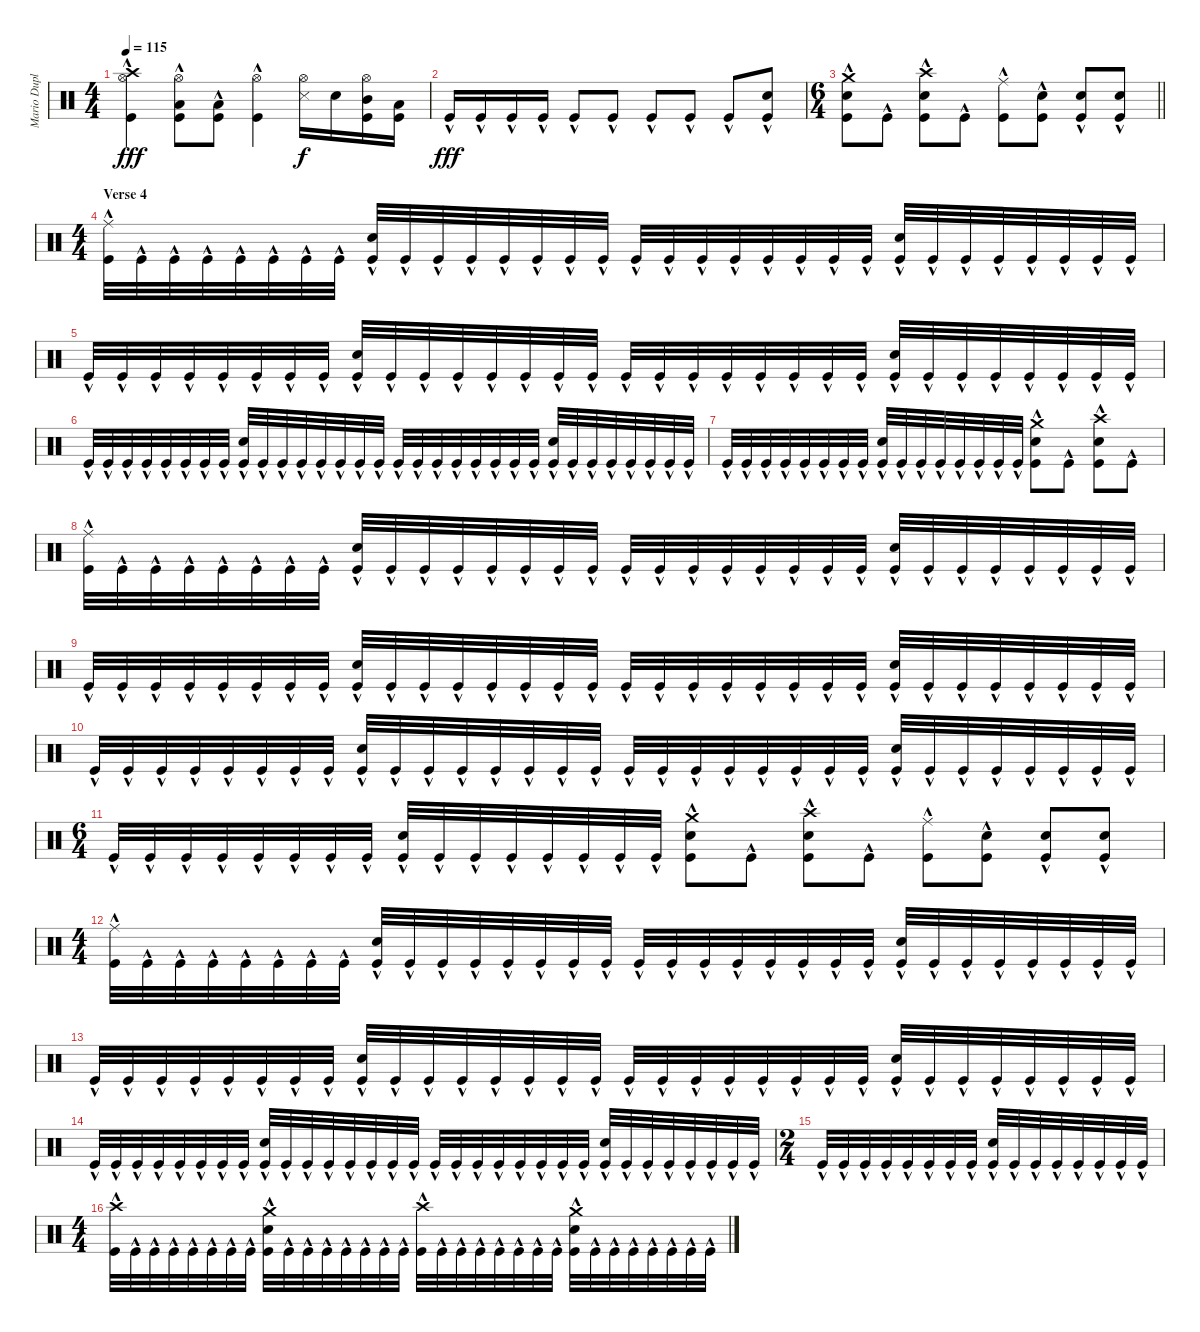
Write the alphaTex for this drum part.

\track ("Mario Duplantier" "Mario Dupl") {instrument percussion}
\staff {score}
\articulation defaults
\ts (4 4)
\tempo 115
\clef neutral
\ks c
("Crash high (hit)" "Hi-Hat (open)"{hac} "Kick (hit)"{hac}).4{dy fff} ("Hi-Hat (open)"{hac} "Low Tom (hit)" "Kick (hit)"{hac}).8 ("Low Tom (hit)" "Kick (hit)"{hac}).8 ("Hi-Hat (open)"{hac} "Kick (hit)"{hac}).4 ("Hi-Hat (open)" "Metronome (hit)").16{dy f} "Electric Snare (hit)".16 ("Hi-Hat (open)" "Mid Tom (hit)" "Kick (hit)").16 ("Low Tom (hit)" "Kick (hit)").16 |
"Kick (hit)"{hac}.16{dy fff} "Kick (hit)"{hac}.16 "Kick (hit)"{hac}.16 "Kick (hit)"{hac}.16 "Kick (hit)"{hac}.8 "Kick (hit)"{hac}.8 "Kick (hit)"{hac}.8 "Kick (hit)"{hac}.8 "Kick (hit)"{hac}.8 ("Electric Snare (hit)" "Kick (hit)"{hac}).8 |
\ts (6 4)
\barLineRight lightlight
("Crash medium (hit)" "Electric Snare (hit)" "Kick (hit)"{hac}).8 "Kick (hit)"{hac}.8 ("Crash high (hit)" "Electric Snare (hit)" "Kick (hit)"{hac}).8 "Kick (hit)"{hac}.8 ("Ride (middle)" "Kick (hit)"{hac}).8 ("Electric Snare (hit)" "Kick (hit)"{hac}).8 ("Electric Snare (hit)" "Kick (hit)"{hac}).8 ("Electric Snare (hit)" "Kick (hit)"{hac}).8 |
\ts (4 4)
\section ("" "Verse 4")
("Ride (middle)" "Kick (hit)"{hac}).32 "Kick (hit)"{hac}.32 "Kick (hit)"{hac}.32 "Kick (hit)"{hac}.32 "Kick (hit)"{hac}.32 "Kick (hit)"{hac}.32 "Kick (hit)"{hac}.32 "Kick (hit)"{hac}.32 ("Electric Snare (hit)" "Kick (hit)"{hac}).32 "Kick (hit)"{hac}.32 "Kick (hit)"{hac}.32 "Kick (hit)"{hac}.32 "Kick (hit)"{hac}.32 "Kick (hit)"{hac}.32 "Kick (hit)"{hac}.32 "Kick (hit)"{hac}.32 "Kick (hit)"{hac}.32 "Kick (hit)"{hac}.32 "Kick (hit)"{hac}.32 "Kick (hit)"{hac}.32 "Kick (hit)"{hac}.32 "Kick (hit)"{hac}.32 "Kick (hit)"{hac}.32 "Kick (hit)"{hac}.32 ("Electric Snare (hit)" "Kick (hit)"{hac}).32 "Kick (hit)"{hac}.32 "Kick (hit)"{hac}.32 "Kick (hit)"{hac}.32 "Kick (hit)"{hac}.32 "Kick (hit)"{hac}.32 "Kick (hit)"{hac}.32 "Kick (hit)"{hac}.32 |
"Kick (hit)"{hac}.32 "Kick (hit)"{hac}.32 "Kick (hit)"{hac}.32 "Kick (hit)"{hac}.32 "Kick (hit)"{hac}.32 "Kick (hit)"{hac}.32 "Kick (hit)"{hac}.32 "Kick (hit)"{hac}.32 ("Electric Snare (hit)" "Kick (hit)"{hac}).32 "Kick (hit)"{hac}.32 "Kick (hit)"{hac}.32 "Kick (hit)"{hac}.32 "Kick (hit)"{hac}.32 "Kick (hit)"{hac}.32 "Kick (hit)"{hac}.32 "Kick (hit)"{hac}.32 "Kick (hit)"{hac}.32 "Kick (hit)"{hac}.32 "Kick (hit)"{hac}.32 "Kick (hit)"{hac}.32 "Kick (hit)"{hac}.32 "Kick (hit)"{hac}.32 "Kick (hit)"{hac}.32 "Kick (hit)"{hac}.32 ("Electric Snare (hit)" "Kick (hit)"{hac}).32 "Kick (hit)"{hac}.32 "Kick (hit)"{hac}.32 "Kick (hit)"{hac}.32 "Kick (hit)"{hac}.32 "Kick (hit)"{hac}.32 "Kick (hit)"{hac}.32 "Kick (hit)"{hac}.32 |
"Kick (hit)"{hac}.32 "Kick (hit)"{hac}.32 "Kick (hit)"{hac}.32 "Kick (hit)"{hac}.32 "Kick (hit)"{hac}.32 "Kick (hit)"{hac}.32 "Kick (hit)"{hac}.32 "Kick (hit)"{hac}.32 ("Electric Snare (hit)" "Kick (hit)"{hac}).32 "Kick (hit)"{hac}.32 "Kick (hit)"{hac}.32 "Kick (hit)"{hac}.32 "Kick (hit)"{hac}.32 "Kick (hit)"{hac}.32 "Kick (hit)"{hac}.32 "Kick (hit)"{hac}.32 "Kick (hit)"{hac}.32 "Kick (hit)"{hac}.32 "Kick (hit)"{hac}.32 "Kick (hit)"{hac}.32 "Kick (hit)"{hac}.32 "Kick (hit)"{hac}.32 "Kick (hit)"{hac}.32 "Kick (hit)"{hac}.32 ("Electric Snare (hit)" "Kick (hit)"{hac}).32 "Kick (hit)"{hac}.32 "Kick (hit)"{hac}.32 "Kick (hit)"{hac}.32 "Kick (hit)"{hac}.32 "Kick (hit)"{hac}.32 "Kick (hit)"{hac}.32 "Kick (hit)"{hac}.32 |
"Kick (hit)"{hac}.32 "Kick (hit)"{hac}.32 "Kick (hit)"{hac}.32 "Kick (hit)"{hac}.32 "Kick (hit)"{hac}.32 "Kick (hit)"{hac}.32 "Kick (hit)"{hac}.32 "Kick (hit)"{hac}.32 ("Electric Snare (hit)" "Kick (hit)"{hac}).32 "Kick (hit)"{hac}.32 "Kick (hit)"{hac}.32 "Kick (hit)"{hac}.32 "Kick (hit)"{hac}.32 "Kick (hit)"{hac}.32 "Kick (hit)"{hac}.32 "Kick (hit)"{hac}.32 ("Crash medium (hit)" "Electric Snare (hit)" "Kick (hit)"{hac}).8 "Kick (hit)"{hac}.8 ("Crash high (hit)" "Electric Snare (hit)" "Kick (hit)"{hac}).8 "Kick (hit)"{hac}.8 |
("Ride (middle)" "Kick (hit)"{hac}).32 "Kick (hit)"{hac}.32 "Kick (hit)"{hac}.32 "Kick (hit)"{hac}.32 "Kick (hit)"{hac}.32 "Kick (hit)"{hac}.32 "Kick (hit)"{hac}.32 "Kick (hit)"{hac}.32 ("Electric Snare (hit)" "Kick (hit)"{hac}).32 "Kick (hit)"{hac}.32 "Kick (hit)"{hac}.32 "Kick (hit)"{hac}.32 "Kick (hit)"{hac}.32 "Kick (hit)"{hac}.32 "Kick (hit)"{hac}.32 "Kick (hit)"{hac}.32 "Kick (hit)"{hac}.32 "Kick (hit)"{hac}.32 "Kick (hit)"{hac}.32 "Kick (hit)"{hac}.32 "Kick (hit)"{hac}.32 "Kick (hit)"{hac}.32 "Kick (hit)"{hac}.32 "Kick (hit)"{hac}.32 ("Electric Snare (hit)" "Kick (hit)"{hac}).32 "Kick (hit)"{hac}.32 "Kick (hit)"{hac}.32 "Kick (hit)"{hac}.32 "Kick (hit)"{hac}.32 "Kick (hit)"{hac}.32 "Kick (hit)"{hac}.32 "Kick (hit)"{hac}.32 |
"Kick (hit)"{hac}.32 "Kick (hit)"{hac}.32 "Kick (hit)"{hac}.32 "Kick (hit)"{hac}.32 "Kick (hit)"{hac}.32 "Kick (hit)"{hac}.32 "Kick (hit)"{hac}.32 "Kick (hit)"{hac}.32 ("Electric Snare (hit)" "Kick (hit)"{hac}).32 "Kick (hit)"{hac}.32 "Kick (hit)"{hac}.32 "Kick (hit)"{hac}.32 "Kick (hit)"{hac}.32 "Kick (hit)"{hac}.32 "Kick (hit)"{hac}.32 "Kick (hit)"{hac}.32 "Kick (hit)"{hac}.32 "Kick (hit)"{hac}.32 "Kick (hit)"{hac}.32 "Kick (hit)"{hac}.32 "Kick (hit)"{hac}.32 "Kick (hit)"{hac}.32 "Kick (hit)"{hac}.32 "Kick (hit)"{hac}.32 ("Electric Snare (hit)" "Kick (hit)"{hac}).32 "Kick (hit)"{hac}.32 "Kick (hit)"{hac}.32 "Kick (hit)"{hac}.32 "Kick (hit)"{hac}.32 "Kick (hit)"{hac}.32 "Kick (hit)"{hac}.32 "Kick (hit)"{hac}.32 |
"Kick (hit)"{hac}.32 "Kick (hit)"{hac}.32 "Kick (hit)"{hac}.32 "Kick (hit)"{hac}.32 "Kick (hit)"{hac}.32 "Kick (hit)"{hac}.32 "Kick (hit)"{hac}.32 "Kick (hit)"{hac}.32 ("Electric Snare (hit)" "Kick (hit)"{hac}).32 "Kick (hit)"{hac}.32 "Kick (hit)"{hac}.32 "Kick (hit)"{hac}.32 "Kick (hit)"{hac}.32 "Kick (hit)"{hac}.32 "Kick (hit)"{hac}.32 "Kick (hit)"{hac}.32 "Kick (hit)"{hac}.32 "Kick (hit)"{hac}.32 "Kick (hit)"{hac}.32 "Kick (hit)"{hac}.32 "Kick (hit)"{hac}.32 "Kick (hit)"{hac}.32 "Kick (hit)"{hac}.32 "Kick (hit)"{hac}.32 ("Electric Snare (hit)" "Kick (hit)"{hac}).32 "Kick (hit)"{hac}.32 "Kick (hit)"{hac}.32 "Kick (hit)"{hac}.32 "Kick (hit)"{hac}.32 "Kick (hit)"{hac}.32 "Kick (hit)"{hac}.32 "Kick (hit)"{hac}.32 |
\ts (6 4)
"Kick (hit)"{hac}.32 "Kick (hit)"{hac}.32 "Kick (hit)"{hac}.32 "Kick (hit)"{hac}.32 "Kick (hit)"{hac}.32 "Kick (hit)"{hac}.32 "Kick (hit)"{hac}.32 "Kick (hit)"{hac}.32 ("Electric Snare (hit)" "Kick (hit)"{hac}).32 "Kick (hit)"{hac}.32 "Kick (hit)"{hac}.32 "Kick (hit)"{hac}.32 "Kick (hit)"{hac}.32 "Kick (hit)"{hac}.32 "Kick (hit)"{hac}.32 "Kick (hit)"{hac}.32 ("Crash medium (hit)" "Electric Snare (hit)" "Kick (hit)"{hac}).8 "Kick (hit)"{hac}.8 ("Crash high (hit)" "Electric Snare (hit)" "Kick (hit)"{hac}).8 "Kick (hit)"{hac}.8 ("Ride (middle)" "Kick (hit)"{hac}).8 ("Electric Snare (hit)" "Kick (hit)"{hac}).8 ("Electric Snare (hit)" "Kick (hit)"{hac}).8 ("Electric Snare (hit)" "Kick (hit)"{hac}).8 |
\ts (4 4)
("Ride (middle)" "Kick (hit)"{hac}).32 "Kick (hit)"{hac}.32 "Kick (hit)"{hac}.32 "Kick (hit)"{hac}.32 "Kick (hit)"{hac}.32 "Kick (hit)"{hac}.32 "Kick (hit)"{hac}.32 "Kick (hit)"{hac}.32 ("Electric Snare (hit)" "Kick (hit)"{hac}).32 "Kick (hit)"{hac}.32 "Kick (hit)"{hac}.32 "Kick (hit)"{hac}.32 "Kick (hit)"{hac}.32 "Kick (hit)"{hac}.32 "Kick (hit)"{hac}.32 "Kick (hit)"{hac}.32 "Kick (hit)"{hac}.32 "Kick (hit)"{hac}.32 "Kick (hit)"{hac}.32 "Kick (hit)"{hac}.32 "Kick (hit)"{hac}.32 "Kick (hit)"{hac}.32 "Kick (hit)"{hac}.32 "Kick (hit)"{hac}.32 ("Electric Snare (hit)" "Kick (hit)"{hac}).32 "Kick (hit)"{hac}.32 "Kick (hit)"{hac}.32 "Kick (hit)"{hac}.32 "Kick (hit)"{hac}.32 "Kick (hit)"{hac}.32 "Kick (hit)"{hac}.32 "Kick (hit)"{hac}.32 |
"Kick (hit)"{hac}.32 "Kick (hit)"{hac}.32 "Kick (hit)"{hac}.32 "Kick (hit)"{hac}.32 "Kick (hit)"{hac}.32 "Kick (hit)"{hac}.32 "Kick (hit)"{hac}.32 "Kick (hit)"{hac}.32 ("Electric Snare (hit)" "Kick (hit)"{hac}).32 "Kick (hit)"{hac}.32 "Kick (hit)"{hac}.32 "Kick (hit)"{hac}.32 "Kick (hit)"{hac}.32 "Kick (hit)"{hac}.32 "Kick (hit)"{hac}.32 "Kick (hit)"{hac}.32 "Kick (hit)"{hac}.32 "Kick (hit)"{hac}.32 "Kick (hit)"{hac}.32 "Kick (hit)"{hac}.32 "Kick (hit)"{hac}.32 "Kick (hit)"{hac}.32 "Kick (hit)"{hac}.32 "Kick (hit)"{hac}.32 ("Electric Snare (hit)" "Kick (hit)"{hac}).32 "Kick (hit)"{hac}.32 "Kick (hit)"{hac}.32 "Kick (hit)"{hac}.32 "Kick (hit)"{hac}.32 "Kick (hit)"{hac}.32 "Kick (hit)"{hac}.32 "Kick (hit)"{hac}.32 |
"Kick (hit)"{hac}.32 "Kick (hit)"{hac}.32 "Kick (hit)"{hac}.32 "Kick (hit)"{hac}.32 "Kick (hit)"{hac}.32 "Kick (hit)"{hac}.32 "Kick (hit)"{hac}.32 "Kick (hit)"{hac}.32 ("Electric Snare (hit)" "Kick (hit)"{hac}).32 "Kick (hit)"{hac}.32 "Kick (hit)"{hac}.32 "Kick (hit)"{hac}.32 "Kick (hit)"{hac}.32 "Kick (hit)"{hac}.32 "Kick (hit)"{hac}.32 "Kick (hit)"{hac}.32 "Kick (hit)"{hac}.32 "Kick (hit)"{hac}.32 "Kick (hit)"{hac}.32 "Kick (hit)"{hac}.32 "Kick (hit)"{hac}.32 "Kick (hit)"{hac}.32 "Kick (hit)"{hac}.32 "Kick (hit)"{hac}.32 ("Electric Snare (hit)" "Kick (hit)"{hac}).32 "Kick (hit)"{hac}.32 "Kick (hit)"{hac}.32 "Kick (hit)"{hac}.32 "Kick (hit)"{hac}.32 "Kick (hit)"{hac}.32 "Kick (hit)"{hac}.32 "Kick (hit)"{hac}.32 |
\ts (2 4)
"Kick (hit)"{hac}.32 "Kick (hit)"{hac}.32 "Kick (hit)"{hac}.32 "Kick (hit)"{hac}.32 "Kick (hit)"{hac}.32 "Kick (hit)"{hac}.32 "Kick (hit)"{hac}.32 "Kick (hit)"{hac}.32 ("Electric Snare (hit)" "Kick (hit)"{hac}).32 "Kick (hit)"{hac}.32 "Kick (hit)"{hac}.32 "Kick (hit)"{hac}.32 "Kick (hit)"{hac}.32 "Kick (hit)"{hac}.32 "Kick (hit)"{hac}.32 "Kick (hit)"{hac}.32 |
\ts (4 4)
("Crash high (hit)" "Kick (hit)"{hac}).32 "Kick (hit)"{hac}.32 "Kick (hit)"{hac}.32 "Kick (hit)"{hac}.32 "Kick (hit)"{hac}.32 "Kick (hit)"{hac}.32 "Kick (hit)"{hac}.32 "Kick (hit)"{hac}.32 ("Crash medium (hit)" "Electric Snare (hit)" "Kick (hit)"{hac}).32 "Kick (hit)"{hac}.32 "Kick (hit)"{hac}.32 "Kick (hit)"{hac}.32 "Kick (hit)"{hac}.32 "Kick (hit)"{hac}.32 "Kick (hit)"{hac}.32 "Kick (hit)"{hac}.32 ("Crash high (hit)" "Kick (hit)"{hac}).32 "Kick (hit)"{hac}.32 "Kick (hit)"{hac}.32 "Kick (hit)"{hac}.32 "Kick (hit)"{hac}.32 "Kick (hit)"{hac}.32 "Kick (hit)"{hac}.32 "Kick (hit)"{hac}.32 ("Crash medium (hit)" "Electric Snare (hit)" "Kick (hit)"{hac}).32 "Kick (hit)"{hac}.32 "Kick (hit)"{hac}.32 "Kick (hit)"{hac}.32 "Kick (hit)"{hac}.32 "Kick (hit)"{hac}.32 "Kick (hit)"{hac}.32 "Kick (hit)"{hac}.32
